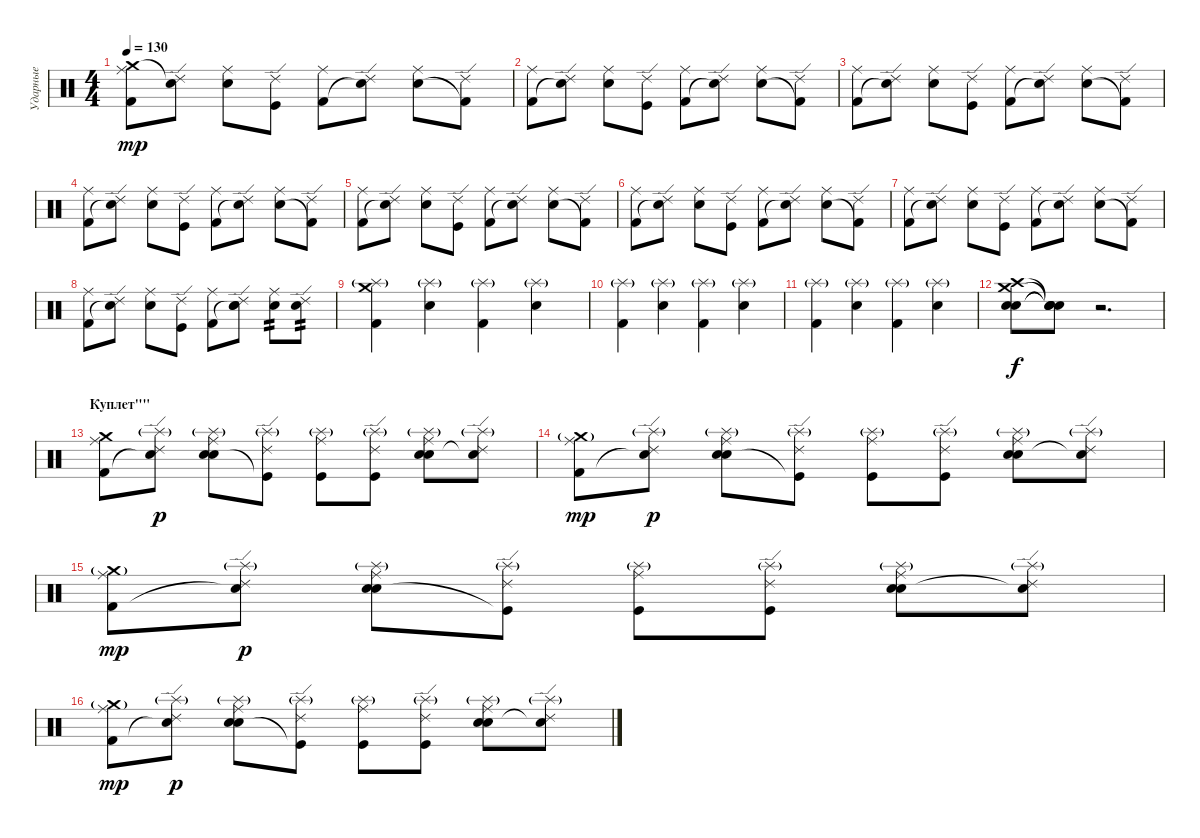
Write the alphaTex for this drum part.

\track ("Ударные" "Ударные") {instrument percussion}
\staff {score}
\articulation defaults
\ts (4 4)
\tempo 130
\clef neutral
\ks c
("Ride (middle)" "Crash medium (hit)" "Kick (hit) 2").8{dy mp} ("Ride (edge) 2" "Snare (hit)"{t}).8 ("Ride (middle)" "Snare (hit) 2").8 ("Ride (edge) 2" "Kick (hit)").8 ("Ride (middle)" "Kick (hit) 2").8 ("Ride (edge) 2" "Snare (hit)"{t}).8 ("Ride (middle)" "Snare (hit) 2").8 ("Ride (edge) 2" "Kick (hit) 2"{t}).8 |
("Ride (middle)" "Kick (hit) 2").8 ("Ride (edge) 2" "Snare (hit)"{t}).8 ("Ride (middle)" "Snare (hit) 2").8 ("Ride (edge) 2" "Kick (hit)").8 ("Ride (middle)" "Kick (hit) 2").8 ("Ride (edge) 2" "Snare (hit)"{t}).8 ("Ride (middle)" "Snare (hit) 2").8 ("Ride (edge) 2" "Kick (hit) 2"{t}).8 |
("Ride (middle)" "Kick (hit) 2").8 ("Ride (edge) 2" "Snare (hit)"{t}).8 ("Ride (middle)" "Snare (hit) 2").8 ("Ride (edge) 2" "Kick (hit)").8 ("Ride (middle)" "Kick (hit) 2").8 ("Ride (edge) 2" "Snare (hit)"{t}).8 ("Ride (middle)" "Snare (hit) 2").8 ("Ride (edge) 2" "Kick (hit) 2"{t}).8 |
("Ride (middle)" "Kick (hit) 2").8 ("Ride (edge) 2" "Snare (hit)"{t}).8 ("Ride (middle)" "Snare (hit) 2").8 ("Ride (edge) 2" "Kick (hit)").8 ("Ride (middle)" "Kick (hit) 2").8 ("Ride (edge) 2" "Snare (hit)"{t}).8 ("Ride (middle)" "Snare (hit) 2").8 ("Ride (edge) 2" "Kick (hit) 2"{t}).8 |
("Ride (middle)" "Kick (hit) 2").8 ("Ride (edge) 2" "Snare (hit)"{t}).8 ("Ride (middle)" "Snare (hit) 2").8 ("Ride (edge) 2" "Kick (hit)").8 ("Ride (middle)" "Kick (hit) 2").8 ("Ride (edge) 2" "Snare (hit)"{t}).8 ("Ride (middle)" "Snare (hit) 2").8 ("Ride (edge) 2" "Kick (hit) 2"{t}).8 |
("Ride (middle)" "Kick (hit) 2").8 ("Ride (edge) 2" "Snare (hit)"{t}).8 ("Ride (middle)" "Snare (hit) 2").8 ("Ride (edge) 2" "Kick (hit)").8 ("Ride (middle)" "Kick (hit) 2").8 ("Ride (edge) 2" "Snare (hit)"{t}).8 ("Ride (middle)" "Snare (hit) 2").8 ("Ride (edge) 2" "Kick (hit) 2"{t}).8 |
("Ride (middle)" "Kick (hit) 2").8 ("Ride (edge) 2" "Snare (hit)"{t}).8 ("Ride (middle)" "Snare (hit) 2").8 ("Ride (edge) 2" "Kick (hit)").8 ("Ride (middle)" "Kick (hit) 2").8 ("Ride (edge) 2" "Snare (hit)"{t}).8 ("Ride (middle)" "Snare (hit) 2").8 ("Ride (edge) 2" "Kick (hit) 2"{t}).8 |
("Ride (middle)" "Kick (hit) 2").8 ("Ride (edge) 2" "Snare (hit)"{t}).8 ("Ride (middle)" "Snare (hit) 2").8 ("Ride (edge) 2" "Kick (hit)").8 ("Ride (middle)" "Kick (hit) 2").8 ("Ride (edge) 2" "Snare (hit)"{t} "Snare (hit) 2").8 ("Ride (middle)" "Electric Snare (hit)").8{tp 2} ("Ride (edge) 2" "Electric Snare (hit)").8{tp 2} |
("Crash medium (hit)" "Splash (hit)"{g} "Kick (hit) 2").4 ("Splash (hit)"{g} "Electric Snare (hit)").4 ("Splash (hit)"{g} "Kick (hit) 2").4 ("Splash (hit)"{g} "Electric Snare (hit)").4 |
("Splash (hit)"{g} "Kick (hit) 2").4 ("Splash (hit)"{g} "Electric Snare (hit)").4 ("Splash (hit)"{g} "Kick (hit) 2").4 ("Splash (hit)"{g} "Electric Snare (hit)").4 |
("Splash (hit)"{g} "Kick (hit) 2").4 ("Splash (hit)"{g} "Electric Snare (hit)").4 ("Splash (hit)"{g} "Kick (hit) 2").4 ("Splash (hit)"{g} "Electric Snare (hit)").4 |
("Electric Snare (hit)" "Crash high (hit)" "Crash medium (hit)" "Snare (hit) 2").8{dy f} ("Snare (hit)"{t} "Snare (hit)"{t} "Snare (hit)"{t} "Snare (hit)"{t}).8 r.2{d} |
\section ("" "Куплет\"\"")
("Crash medium (hit)" "Ride (middle)" "Kick (hit) 2").8 ("Splash (hit)"{g} "Ride (edge) 2" "Snare (hit)"{t}).8{dy p} ("Splash (hit)"{g} "Ride (middle)" "Snare (hit) 2" "Electric Snare (hit)").8 ("Splash (hit)"{g} "Ride (edge) 2" "Kick (hit)"{t}).8 ("Splash (hit)"{g} "Ride (middle)" "Kick (hit)").8 ("Splash (hit)"{g} "Ride (edge) 2" "Kick (hit)").8 ("Splash (hit)"{g} "Ride (middle)" "Snare (hit) 2" "Electric Snare (hit)").8 ("Splash (hit)"{g} "Ride (edge) 2" "Snare (hit)"{t}).8 |
("Crash medium (hit)"{g} "Ride (middle)" "Kick (hit) 2").8{dy mp} ("Splash (hit)"{g} "Ride (edge) 2" "Snare (hit)"{t}).8{dy p} ("Splash (hit)"{g} "Ride (middle)" "Snare (hit) 2" "Electric Snare (hit)").8 ("Splash (hit)"{g} "Ride (edge) 2" "Kick (hit)"{t}).8 ("Splash (hit)"{g} "Ride (middle)" "Kick (hit)").8 ("Splash (hit)"{g} "Ride (edge) 2" "Kick (hit)").8 ("Splash (hit)"{g} "Ride (middle)" "Snare (hit) 2" "Electric Snare (hit)").8 ("Splash (hit)"{g} "Ride (edge) 2" "Snare (hit)"{t}).8 |
("Crash medium (hit)"{g} "Ride (middle)" "Kick (hit) 2").8{dy mp} ("Splash (hit)"{g} "Ride (edge) 2" "Snare (hit)"{t}).8{dy p} ("Splash (hit)"{g} "Ride (middle)" "Snare (hit) 2" "Electric Snare (hit)").8 ("Splash (hit)"{g} "Ride (edge) 2" "Kick (hit)"{t}).8 ("Splash (hit)"{g} "Ride (middle)" "Kick (hit)").8 ("Splash (hit)"{g} "Ride (edge) 2" "Kick (hit)").8 ("Splash (hit)"{g} "Ride (middle)" "Snare (hit) 2" "Electric Snare (hit)").8 ("Splash (hit)"{g} "Ride (edge) 2" "Snare (hit)"{t}).8 |
("Crash medium (hit)"{g} "Ride (middle)" "Kick (hit) 2").8{dy mp} ("Splash (hit)"{g} "Ride (edge) 2" "Snare (hit)"{t}).8{dy p} ("Splash (hit)"{g} "Ride (middle)" "Snare (hit) 2" "Electric Snare (hit)").8 ("Splash (hit)"{g} "Ride (edge) 2" "Kick (hit)"{t}).8 ("Splash (hit)"{g} "Ride (middle)" "Kick (hit)").8 ("Splash (hit)"{g} "Ride (edge) 2" "Kick (hit)").8 ("Splash (hit)"{g} "Ride (middle)" "Snare (hit) 2" "Electric Snare (hit)").8 ("Splash (hit)"{g} "Ride (edge) 2" "Snare (hit)"{t}).8
